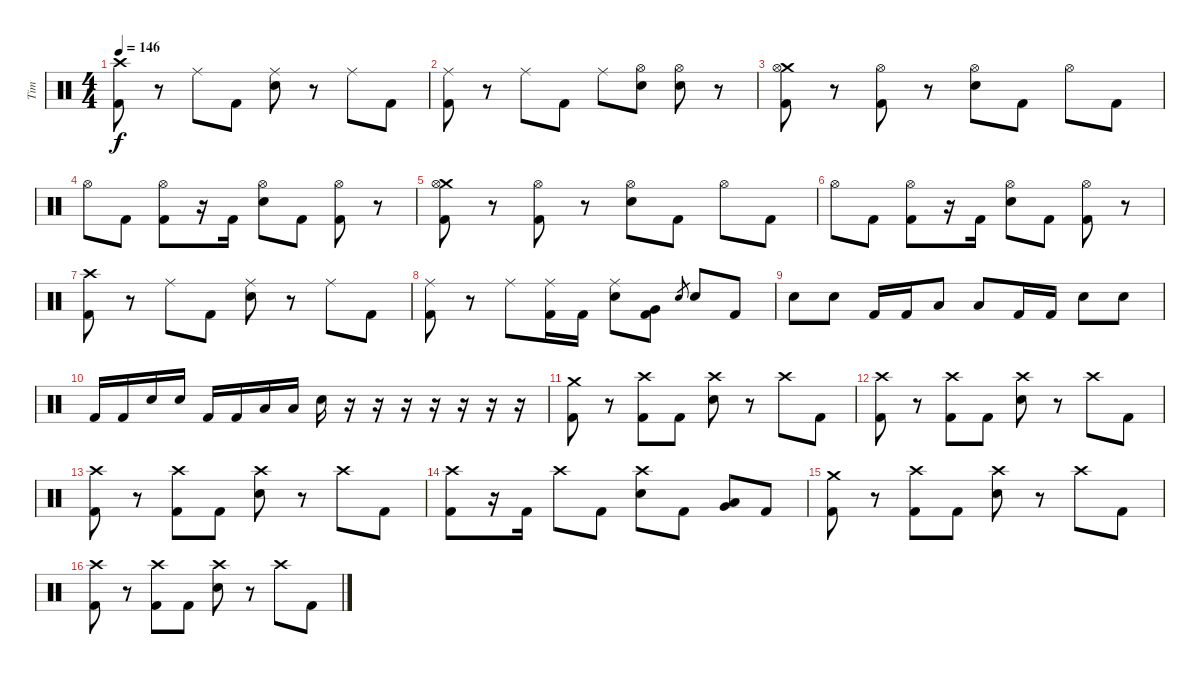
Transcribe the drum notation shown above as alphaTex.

\track ("Tim" "Tim") {instrument percussion}
\staff {score}
\articulation defaults
\ts (4 4)
\tempo 146
\clef neutral
\ks c
("Crash high (hit)" "Kick (hit) 2").8{dy f} r.8 "Ride (middle)".8 "Kick (hit) 2".8 ("Ride (middle)" "Electric Snare (hit)").8 r.8 "Ride (middle)".8 "Kick (hit) 2".8 |
("Ride (middle)" "Kick (hit) 2").8 r.8 "Ride (middle)".8 "Kick (hit) 2".8 "Ride (middle)".8 ("Hi-Hat (open)" "Electric Snare (hit)").8 ("Hi-Hat (open)" "Electric Snare (hit)").8 r.8 |
("Crash medium (hit)" "Hi-Hat (open)" "Kick (hit) 2").8 r.8 ("Hi-Hat (open)" "Kick (hit) 2").8 r.8 ("Hi-Hat (open)" "Electric Snare (hit)").8 "Kick (hit) 2".8 "Hi-Hat (open)".8 "Kick (hit) 2".8 |
"Hi-Hat (open)".8 "Kick (hit) 2".8 ("Hi-Hat (open)" "Kick (hit) 2").8 r.16 "Kick (hit) 2".16 ("Hi-Hat (open)" "Electric Snare (hit)").8 "Kick (hit) 2".8 ("Hi-Hat (open)" "Kick (hit) 2").8 r.8 |
("Crash medium (hit)" "Hi-Hat (open)" "Kick (hit) 2").8 r.8 ("Hi-Hat (open)" "Kick (hit) 2").8 r.8 ("Hi-Hat (open)" "Electric Snare (hit)").8 "Kick (hit) 2".8 "Hi-Hat (open)".8 "Kick (hit) 2".8 |
"Hi-Hat (open)".8 "Kick (hit) 2".8 ("Hi-Hat (open)" "Kick (hit) 2").8 r.16 "Kick (hit) 2".16 ("Hi-Hat (open)" "Electric Snare (hit)").8 "Kick (hit) 2".8 ("Hi-Hat (open)" "Kick (hit) 2").8 r.8 |
("Crash high (hit)" "Kick (hit) 2").8 r.8 "Ride (middle)".8 "Kick (hit) 2".8 ("Ride (middle)" "Electric Snare (hit)").8 r.8 "Ride (middle)".8 "Kick (hit) 2".8 |
("Ride (middle)" "Kick (hit) 2").8 r.8 "Ride (middle)".8 ("Ride (middle)" "Kick (hit) 2").16 "Kick (hit) 2".16 ("Ride (middle)" "Electric Snare (hit)").8 ("Very Low Tom (hit)" "Kick (hit) 2").8 "Electric Snare (hit)".8{gr} "Electric Snare (hit)".8 "Kick (hit) 2".8 |
"Electric Snare (hit)".8 "Electric Snare (hit)".8 "Kick (hit) 2".16 "Kick (hit) 2".16 "Low Tom (hit)".8 "Low Tom (hit)".8 "Kick (hit) 2".16 "Kick (hit) 2".16 "Electric Snare (hit)".8 "Electric Snare (hit)".8 |
"Kick (hit) 2".16 "Kick (hit) 2".16 "Electric Snare (hit)".16 "Electric Snare (hit)".16 "Kick (hit) 2".16 "Kick (hit) 2".16 "Low Tom (hit)".16 "Low Tom (hit)".16 "Electric Snare (hit)".16 r.16 r.16 r.16 r.16 r.16 r.16 r.16 |
("Crash medium (hit)" "Kick (hit) 2").8 r.8 ("Crash high (hit)" "Kick (hit) 2").8 "Kick (hit) 2".8 ("Crash high (hit)" "Electric Snare (hit)").8 r.8 "Crash high (hit)".8 "Kick (hit) 2".8 |
("Crash high (hit)" "Kick (hit) 2").8 r.8 ("Crash high (hit)" "Kick (hit) 2").8 "Kick (hit) 2".8 ("Crash high (hit)" "Electric Snare (hit)").8 r.8 "Crash high (hit)".8 "Kick (hit) 2".8 |
("Crash high (hit)" "Kick (hit) 2").8 r.8 ("Crash high (hit)" "Kick (hit) 2").8 "Kick (hit) 2".8 ("Crash high (hit)" "Electric Snare (hit)").8 r.8 "Crash high (hit)".8 "Kick (hit) 2".8 |
("Crash high (hit)" "Kick (hit) 2").8 r.16 "Kick (hit) 2".16 "Crash high (hit)".8 "Kick (hit) 2".8 ("Crash high (hit)" "Electric Snare (hit)").8 "Kick (hit) 2".8 ("Low Tom (hit)" "Very Low Tom (hit)").8 "Kick (hit) 2".8 |
("Crash medium (hit)" "Kick (hit) 2").8 r.8 ("Crash high (hit)" "Kick (hit) 2").8 "Kick (hit) 2".8 ("Crash high (hit)" "Electric Snare (hit)").8 r.8 "Crash high (hit)".8 "Kick (hit) 2".8 |
("Crash high (hit)" "Kick (hit) 2").8 r.8 ("Crash high (hit)" "Kick (hit) 2").8 "Kick (hit) 2".8 ("Crash high (hit)" "Electric Snare (hit)").8 r.8 "Crash high (hit)".8 "Kick (hit) 2".8
